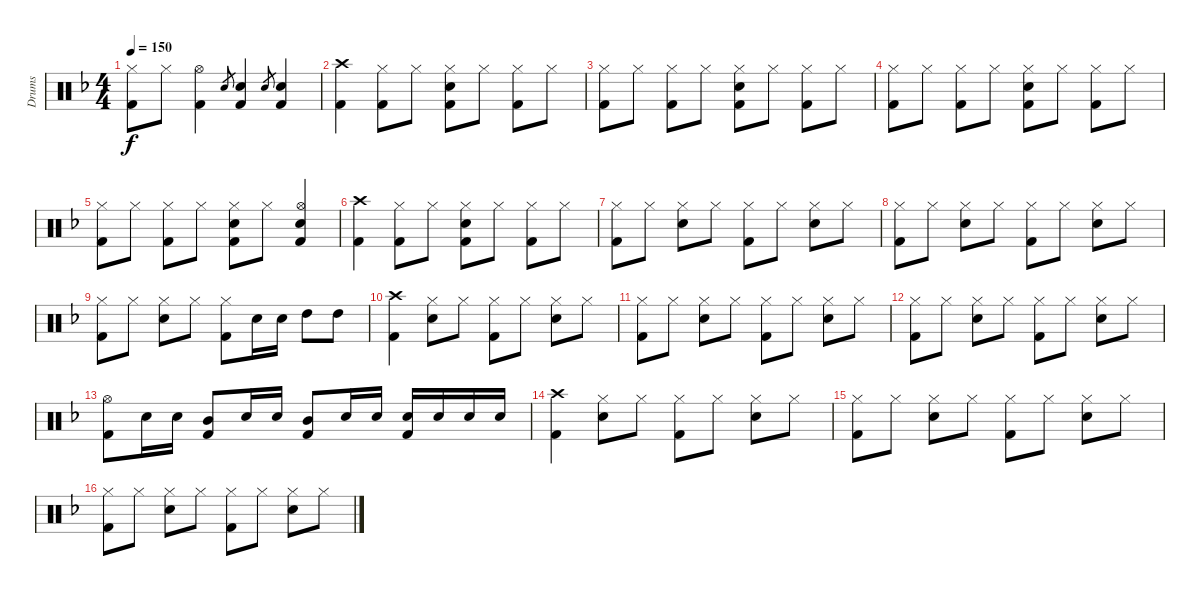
\track ("Drums" "Drums") {instrument percussion}
\staff {score}
\articulation defaults
\ts (4 4)
\tempo 150
\clef neutral
\ks f
("Hi-Hat (closed)" "Kick (hit) 2").8{dy f} "Hi-Hat (closed)".8 ("Hi-Hat (open)" "Kick (hit) 2").4 "Electric Snare (hit)".8{gr} ("Electric Snare (hit)" "Kick (hit) 2").4 "Electric Snare (hit)".8{gr} ("Electric Snare (hit)" "Kick (hit) 2").4 |
("Crash high (hit)" "Kick (hit) 2").4 ("Hi-Hat (closed)" "Kick (hit) 2").8 "Hi-Hat (closed)".8 ("Hi-Hat (closed)" "Electric Snare (hit)" "Kick (hit) 2").8 "Hi-Hat (closed)".8 ("Hi-Hat (closed)" "Kick (hit) 2").8 "Hi-Hat (closed)".8 |
("Hi-Hat (closed)" "Kick (hit) 2").8 "Hi-Hat (closed)".8 ("Hi-Hat (closed)" "Kick (hit) 2").8 "Hi-Hat (closed)".8 ("Hi-Hat (closed)" "Electric Snare (hit)" "Kick (hit) 2").8 "Hi-Hat (closed)".8 ("Hi-Hat (closed)" "Kick (hit) 2").8 "Hi-Hat (closed)".8 |
("Hi-Hat (closed)" "Kick (hit) 2").8 "Hi-Hat (closed)".8 ("Hi-Hat (closed)" "Kick (hit) 2").8 "Hi-Hat (closed)".8 ("Hi-Hat (closed)" "Electric Snare (hit)" "Kick (hit) 2").8 "Hi-Hat (closed)".8 ("Hi-Hat (closed)" "Kick (hit) 2").8 "Hi-Hat (closed)".8 |
("Hi-Hat (closed)" "Kick (hit) 2").8 "Hi-Hat (closed)".8 ("Hi-Hat (closed)" "Kick (hit) 2").8 "Hi-Hat (closed)".8 ("Hi-Hat (closed)" "Electric Snare (hit)" "Kick (hit) 2").8 "Hi-Hat (closed)".8 ("Hi-Hat (open)" "Electric Snare (hit)" "Kick (hit) 2").4 |
("Crash high (hit)" "Kick (hit) 2").4 ("Hi-Hat (closed)" "Kick (hit) 2").8 "Hi-Hat (closed)".8 ("Hi-Hat (closed)" "Electric Snare (hit)" "Kick (hit) 2").8 "Hi-Hat (closed)".8 ("Hi-Hat (closed)" "Kick (hit) 2").8 "Hi-Hat (closed)".8 |
("Hi-Hat (closed)" "Kick (hit) 2").8 "Hi-Hat (closed)".8 ("Hi-Hat (closed)" "Electric Snare (hit)").8 "Hi-Hat (closed)".8 ("Hi-Hat (closed)" "Kick (hit) 2").8 "Hi-Hat (closed)".8 ("Hi-Hat (closed)" "Electric Snare (hit)").8 "Hi-Hat (closed)".8 |
("Hi-Hat (closed)" "Kick (hit) 2").8 "Hi-Hat (closed)".8 ("Hi-Hat (closed)" "Electric Snare (hit)").8 "Hi-Hat (closed)".8 ("Hi-Hat (closed)" "Kick (hit) 2").8 "Hi-Hat (closed)".8 ("Hi-Hat (closed)" "Electric Snare (hit)").8 "Hi-Hat (closed)".8 |
("Hi-Hat (closed)" "Kick (hit) 2").8 "Hi-Hat (closed)".8 ("Hi-Hat (closed)" "Electric Snare (hit)").8 "Hi-Hat (closed)".8 ("Hi-Hat (closed)" "Kick (hit) 2").8 "Electric Snare (hit)".16 "Electric Snare (hit)".16 "High Tom (hit)".8 "High Tom (hit)".8 |
("Crash high (hit)" "Kick (hit) 2").4 ("Hi-Hat (closed)" "Electric Snare (hit)").8 "Hi-Hat (closed)".8 ("Hi-Hat (closed)" "Kick (hit) 2").8 "Hi-Hat (closed)".8 ("Hi-Hat (closed)" "Electric Snare (hit)").8 "Hi-Hat (closed)".8 |
("Hi-Hat (closed)" "Kick (hit) 2").8 "Hi-Hat (closed)".8 ("Hi-Hat (closed)" "Electric Snare (hit)").8 "Hi-Hat (closed)".8 ("Hi-Hat (closed)" "Kick (hit) 2").8 "Hi-Hat (closed)".8 ("Hi-Hat (closed)" "Electric Snare (hit)").8 "Hi-Hat (closed)".8 |
("Hi-Hat (closed)" "Kick (hit) 2").8 "Hi-Hat (closed)".8 ("Hi-Hat (closed)" "Electric Snare (hit)").8 "Hi-Hat (closed)".8 ("Hi-Hat (closed)" "Kick (hit) 2").8 "Hi-Hat (closed)".8 ("Hi-Hat (closed)" "Electric Snare (hit)").8 "Hi-Hat (closed)".8 |
("Hi-Hat (open)" "Kick (hit) 2").8 "Electric Snare (hit)".16 "Electric Snare (hit)".16 ("Mid Tom (hit)" "Kick (hit) 2").8 "Electric Snare (hit)".16 "Electric Snare (hit)".16 ("Mid Tom (hit)" "Kick (hit) 2").8 "Electric Snare (hit)".16 "Electric Snare (hit)".16 ("Electric Snare (hit)" "Kick (hit) 2").16 "Electric Snare (hit)".16 "Electric Snare (hit)".16 "Electric Snare (hit)".16 |
("Crash high (hit)" "Kick (hit) 2").4 ("Hi-Hat (closed)" "Electric Snare (hit)").8 "Hi-Hat (closed)".8 ("Hi-Hat (closed)" "Kick (hit) 2").8 "Hi-Hat (closed)".8 ("Hi-Hat (closed)" "Electric Snare (hit)").8 "Hi-Hat (closed)".8 |
("Hi-Hat (closed)" "Kick (hit) 2").8 "Hi-Hat (closed)".8 ("Hi-Hat (closed)" "Electric Snare (hit)").8 "Hi-Hat (closed)".8 ("Hi-Hat (closed)" "Kick (hit) 2").8 "Hi-Hat (closed)".8 ("Hi-Hat (closed)" "Electric Snare (hit)").8 "Hi-Hat (closed)".8 |
("Hi-Hat (closed)" "Kick (hit) 2").8 "Hi-Hat (closed)".8 ("Hi-Hat (closed)" "Electric Snare (hit)").8 "Hi-Hat (closed)".8 ("Hi-Hat (closed)" "Kick (hit) 2").8 "Hi-Hat (closed)".8 ("Hi-Hat (closed)" "Electric Snare (hit)").8 "Hi-Hat (closed)".8
